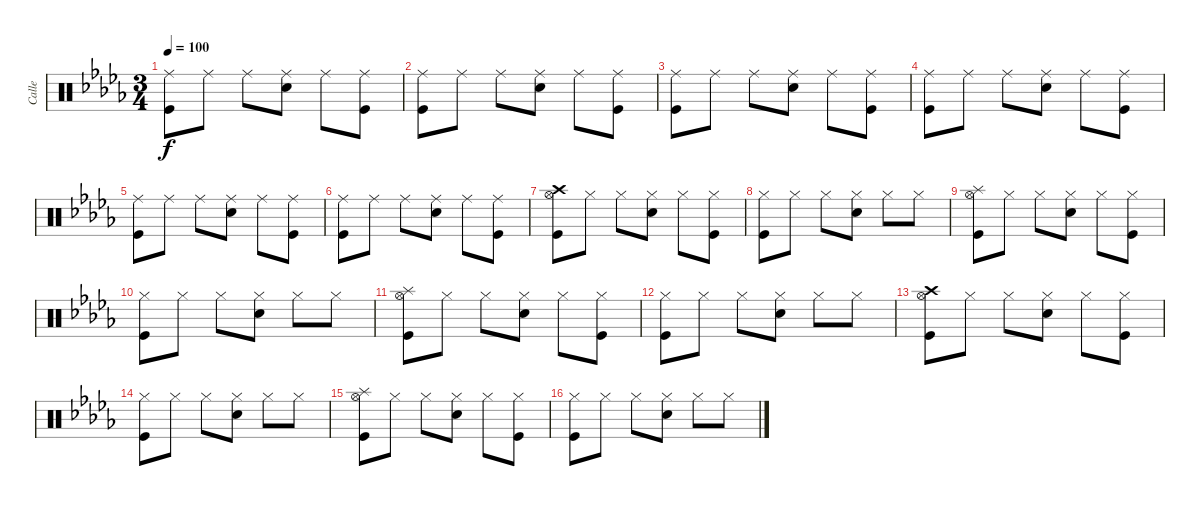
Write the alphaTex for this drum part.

\track ("Calle" "Calle") {instrument percussion}
\staff {score}
\articulation defaults
\ts (3 4)
\tempo 100
\clef neutral
\ks bbminor
("Ride (middle)" "Kick (hit)").8{dy f} "Ride (middle)".8 "Ride (middle)".8 ("Ride (middle)" "Electric Snare (hit)").8 "Ride (middle)".8 ("Ride (middle)" "Kick (hit)").8 |
("Ride (middle)" "Kick (hit)").8 "Ride (middle)".8 "Ride (middle)".8 ("Ride (middle)" "Electric Snare (hit)").8 "Ride (middle)".8 ("Ride (middle)" "Kick (hit)").8 |
("Ride (middle)" "Kick (hit)").8 "Ride (middle)".8 "Ride (middle)".8 ("Ride (middle)" "Electric Snare (hit)").8 "Ride (middle)".8 ("Ride (middle)" "Kick (hit)").8 |
("Ride (middle)" "Kick (hit)").8 "Ride (middle)".8 "Ride (middle)".8 ("Ride (middle)" "Electric Snare (hit)").8 "Ride (middle)".8 ("Ride (middle)" "Kick (hit)").8 |
("Ride (middle)" "Kick (hit)").8 "Ride (middle)".8 "Ride (middle)".8 ("Ride (middle)" "Electric Snare (hit)").8 "Ride (middle)".8 ("Ride (middle)" "Kick (hit)").8 |
("Ride (middle)" "Kick (hit)").8 "Ride (middle)".8 "Ride (middle)".8 ("Ride (middle)" "Electric Snare (hit)").8 "Ride (middle)".8 ("Ride (middle)" "Kick (hit)").8 |
("Crash high (hit)" "Hi-Hat (open)" "Kick (hit)").8 "Hi-Hat (closed)".8 "Hi-Hat (closed)".8 ("Hi-Hat (closed)" "Electric Snare (hit)").8 "Hi-Hat (closed)".8 ("Hi-Hat (closed)" "Kick (hit)").8 |
("Hi-Hat (closed)" "Kick (hit)").8 "Hi-Hat (closed)".8 "Hi-Hat (closed)".8 ("Hi-Hat (closed)" "Electric Snare (hit)").8 "Hi-Hat (closed)".8 "Hi-Hat (closed)".8 |
("Splash (hit)" "Hi-Hat (open)" "Kick (hit)").8 "Hi-Hat (closed)".8 "Hi-Hat (closed)".8 ("Hi-Hat (closed)" "Electric Snare (hit)").8 "Hi-Hat (closed)".8 ("Hi-Hat (closed)" "Kick (hit)").8 |
("Hi-Hat (closed)" "Kick (hit)").8 "Hi-Hat (closed)".8 "Hi-Hat (closed)".8 ("Hi-Hat (closed)" "Electric Snare (hit)").8 "Hi-Hat (closed)".8 "Hi-Hat (closed)".8 |
("Splash (hit)" "Hi-Hat (open)" "Kick (hit)").8 "Hi-Hat (closed)".8 "Hi-Hat (closed)".8 ("Hi-Hat (closed)" "Electric Snare (hit)").8 "Hi-Hat (closed)".8 ("Hi-Hat (closed)" "Kick (hit)").8 |
("Hi-Hat (closed)" "Kick (hit)").8 "Hi-Hat (closed)".8 "Hi-Hat (closed)".8 ("Hi-Hat (closed)" "Electric Snare (hit)").8 "Hi-Hat (closed)".8 "Hi-Hat (closed)".8 |
("Crash high (hit)" "Hi-Hat (open)" "Kick (hit)").8 "Hi-Hat (closed)".8 "Hi-Hat (closed)".8 ("Hi-Hat (closed)" "Electric Snare (hit)").8 "Hi-Hat (closed)".8 ("Hi-Hat (closed)" "Kick (hit)").8 |
("Hi-Hat (closed)" "Kick (hit)").8 "Hi-Hat (closed)".8 "Hi-Hat (closed)".8 ("Hi-Hat (closed)" "Electric Snare (hit)").8 "Hi-Hat (closed)".8 "Hi-Hat (closed)".8 |
("Splash (hit)" "Hi-Hat (open)" "Kick (hit)").8 "Hi-Hat (closed)".8 "Hi-Hat (closed)".8 ("Hi-Hat (closed)" "Electric Snare (hit)").8 "Hi-Hat (closed)".8 ("Hi-Hat (closed)" "Kick (hit)").8 |
("Hi-Hat (closed)" "Kick (hit)").8 "Hi-Hat (closed)".8 "Hi-Hat (closed)".8 ("Hi-Hat (closed)" "Electric Snare (hit)").8 "Hi-Hat (closed)".8 "Hi-Hat (closed)".8
